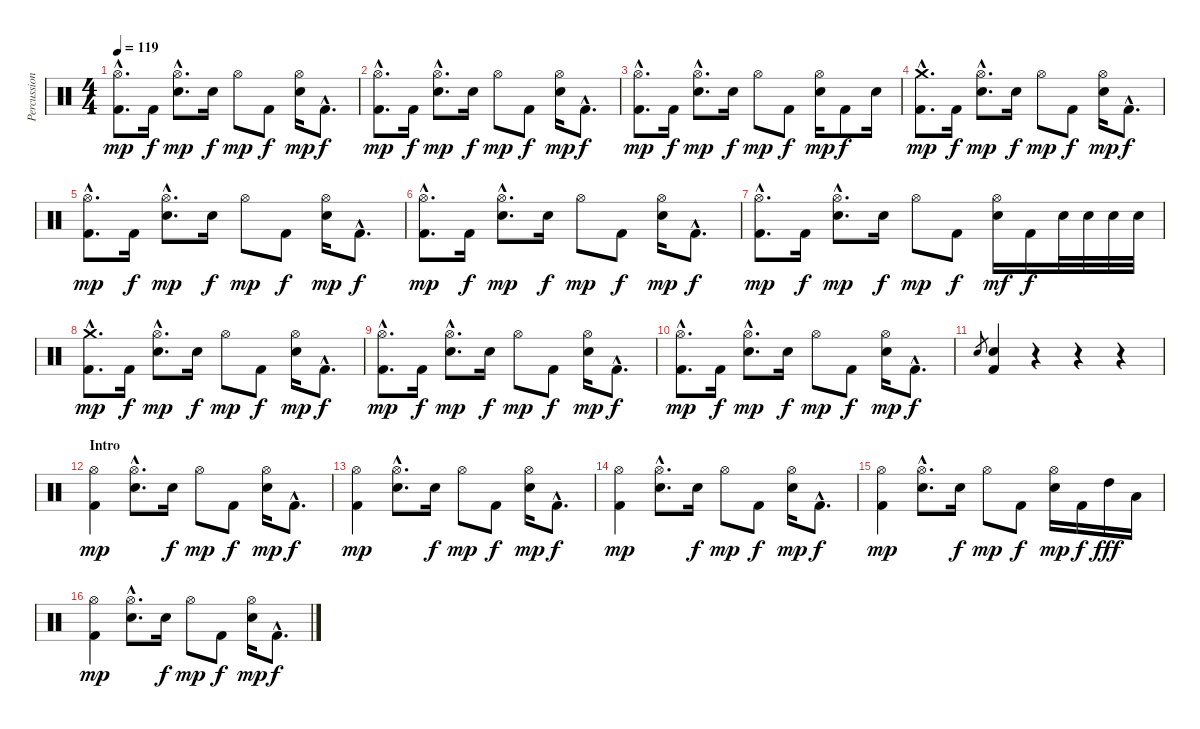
\track ("Percussions" "Percussion") {instrument percussion}
\staff {score}
\articulation defaults
\ts (4 4)
\tempo 119
\clef neutral
\ks c
("Hi-Hat (open)"{hac} "Kick (hit) 2"{hac}).8{d dy mp} "Kick (hit) 2".16{dy f} ("Hi-Hat (open)"{hac} "Snare (hit) 2"{hac}).8{d dy mp} "Electric Snare (hit)".16{dy f} "Hi-Hat (open)".8{dy mp} "Kick (hit) 2".8{dy f} ("Hi-Hat (open)" "Snare (hit) 2").16{dy mp} "Kick (hit) 2"{hac}.8{d dy f} |
("Hi-Hat (open)"{hac} "Kick (hit) 2"{hac}).8{d dy mp} "Kick (hit) 2".16{dy f} ("Hi-Hat (open)"{hac} "Snare (hit) 2"{hac}).8{d dy mp} "Electric Snare (hit)".16{dy f} "Hi-Hat (open)".8{dy mp} "Kick (hit) 2".8{dy f} ("Hi-Hat (open)" "Snare (hit) 2").16{dy mp} "Kick (hit) 2"{hac}.8{d dy f} |
("Hi-Hat (open)"{hac} "Kick (hit) 2"{hac}).8{d dy mp} "Kick (hit) 2".16{dy f} ("Hi-Hat (open)"{hac} "Snare (hit) 2"{hac}).8{d dy mp} "Electric Snare (hit)".16{dy f} "Hi-Hat (open)".8{dy mp} "Kick (hit) 2".8{dy f} ("Hi-Hat (open)" "Snare (hit) 2").16{dy mp} "Kick (hit) 2".8{dy f} "Snare (hit) 2".16 |
("Crash medium (hit)"{hac} "Kick (hit) 2"{hac}).8{d dy mp} "Kick (hit) 2".16{dy f} ("Hi-Hat (open)"{hac} "Snare (hit) 2"{hac}).8{d dy mp} "Electric Snare (hit)".16{dy f} "Hi-Hat (open)".8{dy mp} "Kick (hit) 2".8{dy f} ("Hi-Hat (open)" "Snare (hit) 2").16{dy mp} "Kick (hit) 2"{hac}.8{d dy f} |
("Hi-Hat (open)"{hac} "Kick (hit) 2"{hac}).8{d dy mp} "Kick (hit) 2".16{dy f} ("Hi-Hat (open)"{hac} "Snare (hit) 2"{hac}).8{d dy mp} "Electric Snare (hit)".16{dy f} "Hi-Hat (open)".8{dy mp} "Kick (hit) 2".8{dy f} ("Hi-Hat (open)" "Snare (hit) 2").16{dy mp} "Kick (hit) 2"{hac}.8{d dy f} |
("Hi-Hat (open)"{hac} "Kick (hit) 2"{hac}).8{d dy mp} "Kick (hit) 2".16{dy f} ("Hi-Hat (open)"{hac} "Snare (hit) 2"{hac}).8{d dy mp} "Electric Snare (hit)".16{dy f} "Hi-Hat (open)".8{dy mp} "Kick (hit) 2".8{dy f} ("Hi-Hat (open)" "Snare (hit) 2").16{dy mp} "Kick (hit) 2"{hac}.8{d dy f} |
("Hi-Hat (open)"{hac} "Kick (hit) 2"{hac}).8{d dy mp} "Kick (hit) 2".16{dy f} ("Hi-Hat (open)"{hac} "Snare (hit) 2"{hac}).8{d dy mp} "Electric Snare (hit)".16{dy f} "Hi-Hat (open)".8{dy mp} "Kick (hit) 2".8{dy f} ("Hi-Hat (open)" "Snare (hit) 2").16{dy mf} "Kick (hit) 2".16{dy f} "Snare (hit) 2".32 "Snare (hit) 2".32 "Snare (hit) 2".32 "Snare (hit) 2".32 |
("Crash medium (hit)"{hac} "Kick (hit) 2"{hac}).8{d dy mp} "Kick (hit) 2".16{dy f} ("Hi-Hat (open)"{hac} "Snare (hit) 2"{hac}).8{d dy mp} "Electric Snare (hit)".16{dy f} "Hi-Hat (open)".8{dy mp} "Kick (hit) 2".8{dy f} ("Hi-Hat (open)" "Snare (hit) 2").16{dy mp} "Kick (hit) 2"{hac}.8{d dy f} |
("Hi-Hat (open)"{hac} "Kick (hit) 2"{hac}).8{d dy mp} "Kick (hit) 2".16{dy f} ("Hi-Hat (open)"{hac} "Snare (hit) 2"{hac}).8{d dy mp} "Electric Snare (hit)".16{dy f} "Hi-Hat (open)".8{dy mp} "Kick (hit) 2".8{dy f} ("Hi-Hat (open)" "Snare (hit) 2").16{dy mp} "Kick (hit) 2"{hac}.8{d dy f} |
("Hi-Hat (open)"{hac} "Kick (hit) 2"{hac}).8{d dy mp} "Kick (hit) 2".16{dy f} ("Hi-Hat (open)"{hac} "Snare (hit) 2"{hac}).8{d dy mp} "Electric Snare (hit)".16{dy f} "Hi-Hat (open)".8{dy mp} "Kick (hit) 2".8{dy f} ("Hi-Hat (open)" "Snare (hit) 2").16{dy mp} "Kick (hit) 2"{hac}.8{d dy f} |
"Snare (hit) 2".8{gr} ("Snare (hit) 2" "Kick (hit) 2").4 r.4 r.4 r.4 |
\section ("" "Intro")
("Hi-Hat (open)" "Kick (hit) 2").4{dy mp} ("Hi-Hat (open)"{hac} "Snare (hit) 2"{hac}).8{d} "Snare (hit) 2".16{dy f} "Hi-Hat (open)".8{dy mp} "Kick (hit) 2".8{dy f} ("Hi-Hat (open)" "Snare (hit) 2").16{dy mp} "Kick (hit) 2"{hac}.8{d dy f} |
("Hi-Hat (open)" "Kick (hit) 2").4{dy mp} ("Hi-Hat (open)"{hac} "Snare (hit) 2"{hac}).8{d} "Snare (hit) 2".16{dy f} "Hi-Hat (open)".8{dy mp} "Kick (hit) 2".8{dy f} ("Hi-Hat (open)" "Snare (hit) 2").16{dy mp} "Kick (hit) 2"{hac}.8{d dy f} |
("Hi-Hat (open)" "Kick (hit) 2").4{dy mp} ("Hi-Hat (open)"{hac} "Snare (hit) 2"{hac}).8{d} "Snare (hit) 2".16{dy f} "Hi-Hat (open)".8{dy mp} "Kick (hit) 2".8{dy f} ("Hi-Hat (open)" "Snare (hit) 2").16{dy mp} "Kick (hit) 2"{hac}.8{d dy f} |
("Hi-Hat (open)" "Kick (hit) 2").4{dy mp} ("Hi-Hat (open)"{hac} "Snare (hit) 2"{hac}).8{d} "Snare (hit) 2".16{dy f} "Hi-Hat (open)".8{dy mp} "Kick (hit) 2".8{dy f} ("Hi-Hat (open)" "Snare (hit) 2").16{dy mp} "Kick (hit) 2".16{dy f} "High Tom (hit)".16{dy fff} "Low Tom (hit)".16 |
("Hi-Hat (open)" "Kick (hit) 2").4{dy mp} ("Hi-Hat (open)"{hac} "Snare (hit) 2"{hac}).8{d} "Snare (hit) 2".16{dy f} "Hi-Hat (open)".8{dy mp} "Kick (hit) 2".8{dy f} ("Hi-Hat (open)" "Snare (hit) 2").16{dy mp} "Kick (hit) 2"{hac}.8{d dy f}
